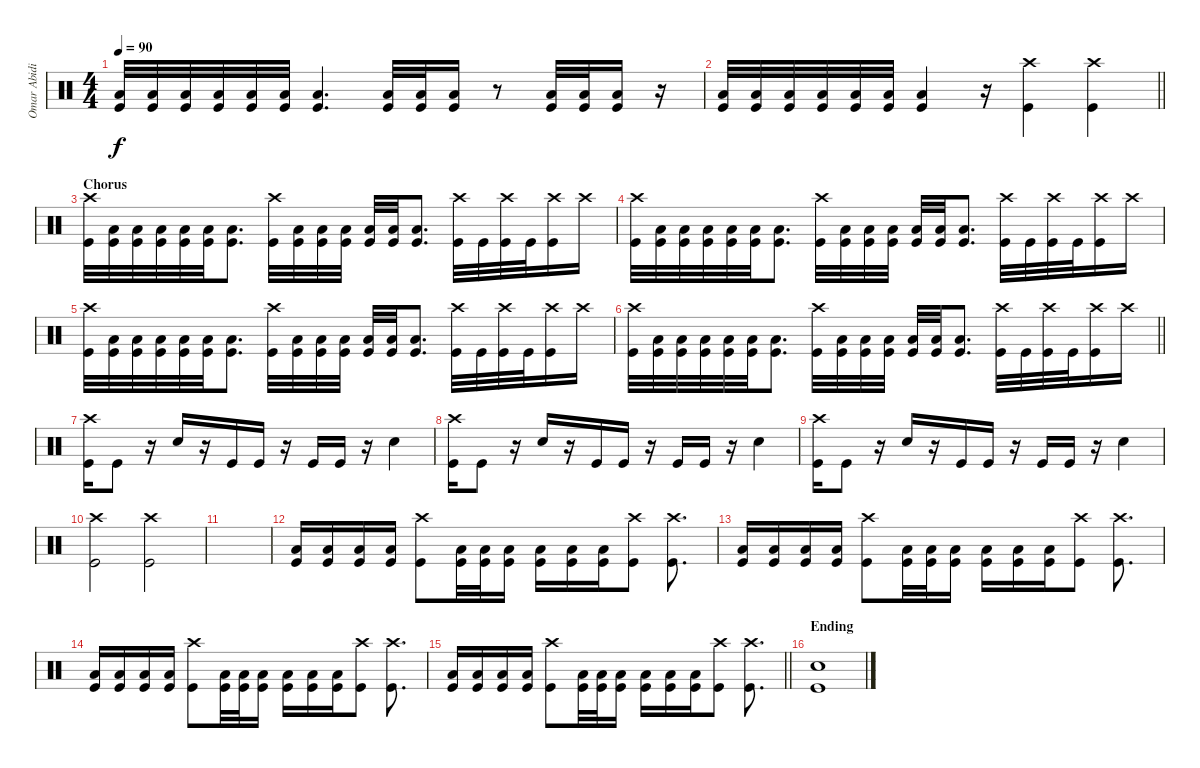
\track ("Omar Abidi" "Omar Abidi") {instrument percussion}
\staff {score}
\articulation defaults
\ts (4 4)
\tempo 90
\clef neutral
\ks c
("Low Floor Tom (hit)" "Kick (hit)").32{dy f} ("Low Floor Tom (hit)" "Kick (hit)").32 ("Low Floor Tom (hit)" "Kick (hit)").32 ("Low Floor Tom (hit)" "Kick (hit)").32 ("Low Floor Tom (hit)" "Kick (hit)").32 ("Low Floor Tom (hit)" "Kick (hit)").32 ("Low Floor Tom (hit)" "Kick (hit)").4{d} ("Low Floor Tom (hit)" "Kick (hit)").32 ("Low Floor Tom (hit)" "Kick (hit)").32 ("Low Floor Tom (hit)" "Kick (hit)").16 r.8 ("Low Floor Tom (hit)" "Kick (hit)").32 ("Low Floor Tom (hit)" "Kick (hit)").32 ("Low Floor Tom (hit)" "Kick (hit)").16 r.16 |
\barLineRight lightlight
("Low Floor Tom (hit)" "Kick (hit)").32 ("Low Floor Tom (hit)" "Kick (hit)").32 ("Low Floor Tom (hit)" "Kick (hit)").32 ("Low Floor Tom (hit)" "Kick (hit)").32 ("Low Floor Tom (hit)" "Kick (hit)").32 ("Low Floor Tom (hit)" "Kick (hit)").32 ("Low Floor Tom (hit)" "Kick (hit)").4 r.16 ("Crash high (hit)" "Kick (hit)").4 ("Crash high (hit)" "Kick (hit)").4 |
\section ("" "Chorus")
("Crash high (hit)" "Kick (hit)").32 ("Low Floor Tom (hit)" "Kick (hit)").32 ("Low Floor Tom (hit)" "Kick (hit)").32 ("Low Floor Tom (hit)" "Kick (hit)").32 ("Low Floor Tom (hit)" "Kick (hit)").32 ("Low Floor Tom (hit)" "Kick (hit)").32 ("Low Floor Tom (hit)" "Kick (hit)").8{d} ("Crash high (hit)" "Kick (hit)").32 ("Low Floor Tom (hit)" "Kick (hit)").32 ("Low Floor Tom (hit)" "Kick (hit)").32 ("Low Floor Tom (hit)" "Kick (hit)").32 ("Low Floor Tom (hit)" "Kick (hit)").32 ("Low Floor Tom (hit)" "Kick (hit)").32 ("Low Floor Tom (hit)" "Kick (hit)").8{d} ("Crash high (hit)" "Kick (hit)").32 "Kick (hit)".32 ("Crash high (hit)" "Kick (hit)").32 "Kick (hit)".32 ("Crash high (hit)" "Kick (hit)").16 "Crash high (hit)".16 |
("Crash high (hit)" "Kick (hit)").32 ("Low Floor Tom (hit)" "Kick (hit)").32 ("Low Floor Tom (hit)" "Kick (hit)").32 ("Low Floor Tom (hit)" "Kick (hit)").32 ("Low Floor Tom (hit)" "Kick (hit)").32 ("Low Floor Tom (hit)" "Kick (hit)").32 ("Low Floor Tom (hit)" "Kick (hit)").8{d} ("Crash high (hit)" "Kick (hit)").32 ("Low Floor Tom (hit)" "Kick (hit)").32 ("Low Floor Tom (hit)" "Kick (hit)").32 ("Low Floor Tom (hit)" "Kick (hit)").32 ("Low Floor Tom (hit)" "Kick (hit)").32 ("Low Floor Tom (hit)" "Kick (hit)").32 ("Low Floor Tom (hit)" "Kick (hit)").8{d} ("Crash high (hit)" "Kick (hit)").32 "Kick (hit)".32 ("Crash high (hit)" "Kick (hit)").32 "Kick (hit)".32 ("Crash high (hit)" "Kick (hit)").16 "Crash high (hit)".16 |
("Crash high (hit)" "Kick (hit)").32 ("Low Floor Tom (hit)" "Kick (hit)").32 ("Low Floor Tom (hit)" "Kick (hit)").32 ("Low Floor Tom (hit)" "Kick (hit)").32 ("Low Floor Tom (hit)" "Kick (hit)").32 ("Low Floor Tom (hit)" "Kick (hit)").32 ("Low Floor Tom (hit)" "Kick (hit)").8{d} ("Crash high (hit)" "Kick (hit)").32 ("Low Floor Tom (hit)" "Kick (hit)").32 ("Low Floor Tom (hit)" "Kick (hit)").32 ("Low Floor Tom (hit)" "Kick (hit)").32 ("Low Floor Tom (hit)" "Kick (hit)").32 ("Low Floor Tom (hit)" "Kick (hit)").32 ("Low Floor Tom (hit)" "Kick (hit)").8{d} ("Crash high (hit)" "Kick (hit)").32 "Kick (hit)".32 ("Crash high (hit)" "Kick (hit)").32 "Kick (hit)".32 ("Crash high (hit)" "Kick (hit)").16 "Crash high (hit)".16 |
\barLineRight lightlight
("Crash high (hit)" "Kick (hit)").32 ("Low Floor Tom (hit)" "Kick (hit)").32 ("Low Floor Tom (hit)" "Kick (hit)").32 ("Low Floor Tom (hit)" "Kick (hit)").32 ("Low Floor Tom (hit)" "Kick (hit)").32 ("Low Floor Tom (hit)" "Kick (hit)").32 ("Low Floor Tom (hit)" "Kick (hit)").8{d} ("Crash high (hit)" "Kick (hit)").32 ("Low Floor Tom (hit)" "Kick (hit)").32 ("Low Floor Tom (hit)" "Kick (hit)").32 ("Low Floor Tom (hit)" "Kick (hit)").32 ("Low Floor Tom (hit)" "Kick (hit)").32 ("Low Floor Tom (hit)" "Kick (hit)").32 ("Low Floor Tom (hit)" "Kick (hit)").8{d} ("Crash high (hit)" "Kick (hit)").32 "Kick (hit)".32 ("Crash high (hit)" "Kick (hit)").32 "Kick (hit)".32 ("Crash high (hit)" "Kick (hit)").16 "Crash high (hit)".16 |
("Crash high (hit)" "Kick (hit)").16 "Kick (hit)".8 r.16 "Snare (hit) 2".16 r.16 "Kick (hit)".16 "Kick (hit)".16 r.16 "Kick (hit)".16 "Kick (hit)".16 r.16 "Snare (hit) 2".4 |
("Crash high (hit)" "Kick (hit)").16 "Kick (hit)".8 r.16 "Snare (hit) 2".16 r.16 "Kick (hit)".16 "Kick (hit)".16 r.16 "Kick (hit)".16 "Kick (hit)".16 r.16 "Snare (hit) 2".4 |
("Crash high (hit)" "Kick (hit)").16 "Kick (hit)".8 r.16 "Snare (hit) 2".16 r.16 "Kick (hit)".16 "Kick (hit)".16 r.16 "Kick (hit)".16 "Kick (hit)".16 r.16 "Snare (hit) 2".4 |
("Crash high (hit)" "Kick (hit)").2 ("Crash high (hit)" "Kick (hit)").2 |
|
("Low Floor Tom (hit)" "Kick (hit)").16 ("Low Floor Tom (hit)" "Kick (hit)").16 ("Low Floor Tom (hit)" "Kick (hit)").16 ("Low Floor Tom (hit)" "Kick (hit)").16 ("Crash high (hit)" "Kick (hit)").8 ("Low Floor Tom (hit)" "Kick (hit)").32 ("Low Floor Tom (hit)" "Kick (hit)").32 ("Low Floor Tom (hit)" "Kick (hit)").16 ("Low Floor Tom (hit)" "Kick (hit)").16 ("Low Floor Tom (hit)" "Kick (hit)").16 ("Low Floor Tom (hit)" "Kick (hit)").16 ("Crash high (hit)" "Kick (hit)").8 ("Crash high (hit)" "Kick (hit)").8{d} |
("Low Floor Tom (hit)" "Kick (hit)").16 ("Low Floor Tom (hit)" "Kick (hit)").16 ("Low Floor Tom (hit)" "Kick (hit)").16 ("Low Floor Tom (hit)" "Kick (hit)").16 ("Crash high (hit)" "Kick (hit)").8 ("Low Floor Tom (hit)" "Kick (hit)").32 ("Low Floor Tom (hit)" "Kick (hit)").32 ("Low Floor Tom (hit)" "Kick (hit)").16 ("Low Floor Tom (hit)" "Kick (hit)").16 ("Low Floor Tom (hit)" "Kick (hit)").16 ("Low Floor Tom (hit)" "Kick (hit)").16 ("Crash high (hit)" "Kick (hit)").8 ("Crash high (hit)" "Kick (hit)").8{d} |
("Low Floor Tom (hit)" "Kick (hit)").16 ("Low Floor Tom (hit)" "Kick (hit)").16 ("Low Floor Tom (hit)" "Kick (hit)").16 ("Low Floor Tom (hit)" "Kick (hit)").16 ("Crash high (hit)" "Kick (hit)").8 ("Low Floor Tom (hit)" "Kick (hit)").32 ("Low Floor Tom (hit)" "Kick (hit)").32 ("Low Floor Tom (hit)" "Kick (hit)").16 ("Low Floor Tom (hit)" "Kick (hit)").16 ("Low Floor Tom (hit)" "Kick (hit)").16 ("Low Floor Tom (hit)" "Kick (hit)").16 ("Crash high (hit)" "Kick (hit)").8 ("Crash high (hit)" "Kick (hit)").8{d} |
\barLineRight lightlight
("Low Floor Tom (hit)" "Kick (hit)").16 ("Low Floor Tom (hit)" "Kick (hit)").16 ("Low Floor Tom (hit)" "Kick (hit)").16 ("Low Floor Tom (hit)" "Kick (hit)").16 ("Crash high (hit)" "Kick (hit)").8 ("Low Floor Tom (hit)" "Kick (hit)").32 ("Low Floor Tom (hit)" "Kick (hit)").32 ("Low Floor Tom (hit)" "Kick (hit)").16 ("Low Floor Tom (hit)" "Kick (hit)").16 ("Low Floor Tom (hit)" "Kick (hit)").16 ("Low Floor Tom (hit)" "Kick (hit)").16 ("Crash high (hit)" "Kick (hit)").8 ("Crash high (hit)" "Kick (hit)").8{d} |
\section ("" "Ending ")
("Snare (hit) 2" "Kick (hit)").1
